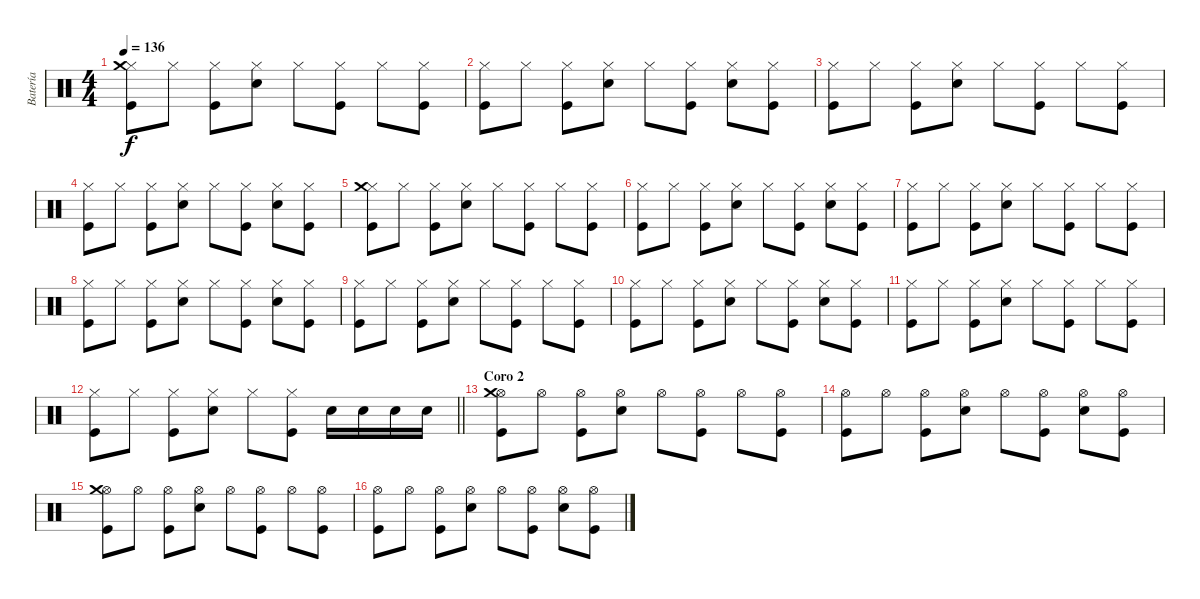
\track ("Batería" "Batería") {instrument percussion}
\staff {score}
\articulation defaults
\ts (4 4)
\tempo 136
\clef neutral
\ks c
("Hi-Hat (closed)" "Crash medium (hit)" "Kick (hit)").8{dy f} "Hi-Hat (closed)".8 ("Hi-Hat (closed)" "Kick (hit)").8 ("Hi-Hat (closed)" "Snare (hit) 2").8 "Hi-Hat (closed)".8 ("Hi-Hat (closed)" "Kick (hit)").8 "Hi-Hat (closed)".8 ("Hi-Hat (closed)" "Kick (hit)").8 |
("Hi-Hat (closed)" "Kick (hit)").8 "Hi-Hat (closed)".8 ("Hi-Hat (closed)" "Kick (hit)").8 ("Hi-Hat (closed)" "Snare (hit) 2").8 "Hi-Hat (closed)".8 ("Hi-Hat (closed)" "Kick (hit)").8 ("Hi-Hat (closed)" "Snare (hit) 2").8 ("Hi-Hat (closed)" "Kick (hit)").8 |
("Hi-Hat (closed)" "Kick (hit)").8 "Hi-Hat (closed)".8 ("Hi-Hat (closed)" "Kick (hit)").8 ("Hi-Hat (closed)" "Snare (hit) 2").8 "Hi-Hat (closed)".8 ("Hi-Hat (closed)" "Kick (hit)").8 "Hi-Hat (closed)".8 ("Hi-Hat (closed)" "Kick (hit)").8 |
("Hi-Hat (closed)" "Kick (hit)").8 "Hi-Hat (closed)".8 ("Hi-Hat (closed)" "Kick (hit)").8 ("Hi-Hat (closed)" "Snare (hit) 2").8 "Hi-Hat (closed)".8 ("Hi-Hat (closed)" "Kick (hit)").8 ("Hi-Hat (closed)" "Snare (hit) 2").8 ("Hi-Hat (closed)" "Kick (hit)").8 |
("Hi-Hat (closed)" "Crash medium (hit)" "Kick (hit)").8 "Hi-Hat (closed)".8 ("Hi-Hat (closed)" "Kick (hit)").8 ("Hi-Hat (closed)" "Snare (hit) 2").8 "Hi-Hat (closed)".8 ("Hi-Hat (closed)" "Kick (hit)").8 "Hi-Hat (closed)".8 ("Hi-Hat (closed)" "Kick (hit)").8 |
("Hi-Hat (closed)" "Kick (hit)").8 "Hi-Hat (closed)".8 ("Hi-Hat (closed)" "Kick (hit)").8 ("Hi-Hat (closed)" "Snare (hit) 2").8 "Hi-Hat (closed)".8 ("Hi-Hat (closed)" "Kick (hit)").8 ("Hi-Hat (closed)" "Snare (hit) 2").8 ("Hi-Hat (closed)" "Kick (hit)").8 |
("Hi-Hat (closed)" "Kick (hit)").8 "Hi-Hat (closed)".8 ("Hi-Hat (closed)" "Kick (hit)").8 ("Hi-Hat (closed)" "Snare (hit) 2").8 "Hi-Hat (closed)".8 ("Hi-Hat (closed)" "Kick (hit)").8 "Hi-Hat (closed)".8 ("Hi-Hat (closed)" "Kick (hit)").8 |
("Hi-Hat (closed)" "Kick (hit)").8 "Hi-Hat (closed)".8 ("Hi-Hat (closed)" "Kick (hit)").8 ("Hi-Hat (closed)" "Snare (hit) 2").8 "Hi-Hat (closed)".8 ("Hi-Hat (closed)" "Kick (hit)").8 ("Hi-Hat (closed)" "Snare (hit) 2").8 ("Hi-Hat (closed)" "Kick (hit)").8 |
("Hi-Hat (closed)" "Kick (hit)").8 "Hi-Hat (closed)".8 ("Hi-Hat (closed)" "Kick (hit)").8 ("Hi-Hat (closed)" "Snare (hit) 2").8 "Hi-Hat (closed)".8 ("Hi-Hat (closed)" "Kick (hit)").8 "Hi-Hat (closed)".8 ("Hi-Hat (closed)" "Kick (hit)").8 |
("Hi-Hat (closed)" "Kick (hit)").8 "Hi-Hat (closed)".8 ("Hi-Hat (closed)" "Kick (hit)").8 ("Hi-Hat (closed)" "Snare (hit) 2").8 "Hi-Hat (closed)".8 ("Hi-Hat (closed)" "Kick (hit)").8 ("Hi-Hat (closed)" "Snare (hit) 2").8 ("Hi-Hat (closed)" "Kick (hit)").8 |
("Hi-Hat (closed)" "Kick (hit)").8 "Hi-Hat (closed)".8 ("Hi-Hat (closed)" "Kick (hit)").8 ("Hi-Hat (closed)" "Snare (hit) 2").8 "Hi-Hat (closed)".8 ("Hi-Hat (closed)" "Kick (hit)").8 "Hi-Hat (closed)".8 ("Hi-Hat (closed)" "Kick (hit)").8 |
\barLineRight lightlight
("Hi-Hat (closed)" "Kick (hit)").8 "Hi-Hat (closed)".8 ("Hi-Hat (closed)" "Kick (hit)").8 ("Hi-Hat (closed)" "Snare (hit) 2").8 "Hi-Hat (closed)".8 ("Hi-Hat (closed)" "Kick (hit)").8 "Snare (hit) 2".16 "Snare (hit) 2".16 "Snare (hit) 2".16 "Snare (hit) 2".16 |
\section ("" "Coro 2")
("Hi-Hat (open)" "Crash medium (hit)" "Kick (hit)").8 "Hi-Hat (open)".8 ("Hi-Hat (open)" "Kick (hit)").8 ("Hi-Hat (open)" "Snare (hit) 2").8 "Hi-Hat (open)".8 ("Hi-Hat (open)" "Kick (hit)").8 "Hi-Hat (open)".8 ("Hi-Hat (open)" "Kick (hit)").8 |
("Hi-Hat (open)" "Kick (hit)").8 "Hi-Hat (open)".8 ("Hi-Hat (open)" "Kick (hit)").8 ("Hi-Hat (open)" "Snare (hit) 2").8 "Hi-Hat (open)".8 ("Hi-Hat (open)" "Kick (hit)").8 ("Hi-Hat (open)" "Snare (hit) 2").8 ("Hi-Hat (open)" "Kick (hit)").8 |
("Hi-Hat (open)" "Crash medium (hit)" "Kick (hit)").8 "Hi-Hat (open)".8 ("Hi-Hat (open)" "Kick (hit)").8 ("Hi-Hat (open)" "Snare (hit) 2").8 "Hi-Hat (open)".8 ("Hi-Hat (open)" "Kick (hit)").8 "Hi-Hat (open)".8 ("Hi-Hat (open)" "Kick (hit)").8 |
("Hi-Hat (open)" "Kick (hit)").8 "Hi-Hat (open)".8 ("Hi-Hat (open)" "Kick (hit)").8 ("Hi-Hat (open)" "Snare (hit) 2").8 "Hi-Hat (open)".8 ("Hi-Hat (open)" "Kick (hit)").8 ("Hi-Hat (open)" "Snare (hit) 2").8 ("Hi-Hat (open)" "Kick (hit)").8
